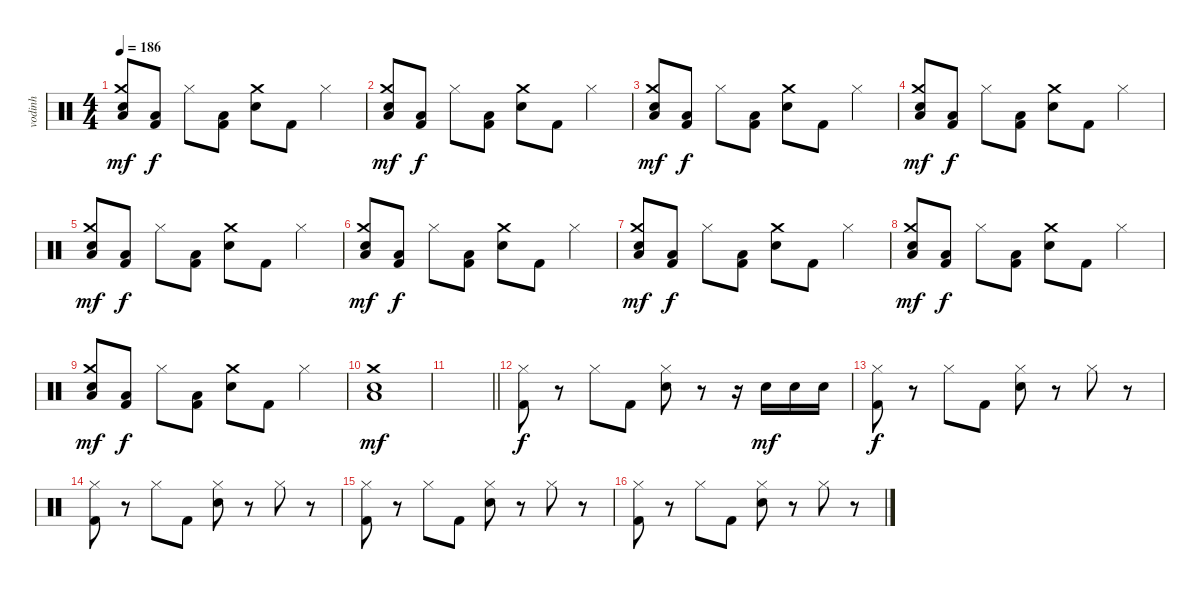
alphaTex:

\track ("vodinh" "vodinh") {instrument percussion}
\staff {score}
\articulation defaults
\ts (4 4)
\tempo 186
\clef neutral
\ks c
("Snare (hit) 2" "Crash medium (hit)" "Low Floor Tom (hit)").8{dy mf} ("Kick (hit) 2" "Low Floor Tom (hit)").8{dy f} "Hi-Hat (closed)".8 ("Kick (hit) 2" "Low Floor Tom (hit)").8 ("Snare (hit) 2" "Crash medium (hit)").8 "Kick (hit) 2".8 "Hi-Hat (closed)".4 |
("Snare (hit) 2" "Crash medium (hit)" "Low Floor Tom (hit)").8{dy mf} ("Kick (hit) 2" "Low Floor Tom (hit)").8{dy f} "Hi-Hat (closed)".8 ("Kick (hit) 2" "Low Floor Tom (hit)").8 ("Snare (hit) 2" "Crash medium (hit)").8 "Kick (hit) 2".8 "Hi-Hat (closed)".4 |
("Snare (hit) 2" "Crash medium (hit)" "Low Floor Tom (hit)").8{dy mf} ("Kick (hit) 2" "Low Floor Tom (hit)").8{dy f} "Hi-Hat (closed)".8 ("Kick (hit) 2" "Low Floor Tom (hit)").8 ("Snare (hit) 2" "Crash medium (hit)").8 "Kick (hit) 2".8 "Hi-Hat (closed)".4 |
("Snare (hit) 2" "Crash medium (hit)" "Low Floor Tom (hit)").8{dy mf} ("Kick (hit) 2" "Low Floor Tom (hit)").8{dy f} "Hi-Hat (closed)".8 ("Kick (hit) 2" "Low Floor Tom (hit)").8 ("Snare (hit) 2" "Crash medium (hit)").8 "Kick (hit) 2".8 "Hi-Hat (closed)".4 |
("Snare (hit) 2" "Crash medium (hit)" "Low Floor Tom (hit)").8{dy mf} ("Kick (hit) 2" "Low Floor Tom (hit)").8{dy f} "Hi-Hat (closed)".8 ("Kick (hit) 2" "Low Floor Tom (hit)").8 ("Snare (hit) 2" "Crash medium (hit)").8 "Kick (hit) 2".8 "Hi-Hat (closed)".4 |
("Snare (hit) 2" "Crash medium (hit)" "Low Floor Tom (hit)").8{dy mf} ("Kick (hit) 2" "Low Floor Tom (hit)").8{dy f} "Hi-Hat (closed)".8 ("Kick (hit) 2" "Low Floor Tom (hit)").8 ("Snare (hit) 2" "Crash medium (hit)").8 "Kick (hit) 2".8 "Hi-Hat (closed)".4 |
("Snare (hit) 2" "Crash medium (hit)" "Low Floor Tom (hit)").8{dy mf} ("Kick (hit) 2" "Low Floor Tom (hit)").8{dy f} "Hi-Hat (closed)".8 ("Kick (hit) 2" "Low Floor Tom (hit)").8 ("Snare (hit) 2" "Crash medium (hit)").8 "Kick (hit) 2".8 "Hi-Hat (closed)".4 |
("Snare (hit) 2" "Crash medium (hit)" "Low Floor Tom (hit)").8{dy mf} ("Kick (hit) 2" "Low Floor Tom (hit)").8{dy f} "Hi-Hat (closed)".8 ("Kick (hit) 2" "Low Floor Tom (hit)").8 ("Snare (hit) 2" "Crash medium (hit)").8 "Kick (hit) 2".8 "Hi-Hat (closed)".4 |
("Snare (hit) 2" "Crash medium (hit)" "Low Floor Tom (hit)").8{dy mf} ("Kick (hit) 2" "Low Floor Tom (hit)").8{dy f} "Hi-Hat (closed)".8 ("Kick (hit) 2" "Low Floor Tom (hit)").8 ("Snare (hit) 2" "Crash medium (hit)").8 "Kick (hit) 2".8 "Hi-Hat (closed)".4 |
("Snare (hit) 2" "Crash medium (hit)" "Low Floor Tom (hit)").1{dy mf} |
\barLineRight lightlight
|
\section ("" " ")
("Hi-Hat (closed)" "Kick (hit) 2").8{dy f} r.8 "Hi-Hat (closed)".8 "Kick (hit) 2".8 ("Hi-Hat (closed)" "Snare (hit) 2").8 r.8 r.16 "Snare (hit) 2".16{dy mf} "Snare (hit) 2".16 "Snare (hit) 2".16 |
("Hi-Hat (closed)" "Kick (hit) 2").8{dy f} r.8 "Hi-Hat (closed)".8 "Kick (hit) 2".8 ("Hi-Hat (closed)" "Snare (hit) 2").8 r.8 "Hi-Hat (closed)".8 r.8 |
("Hi-Hat (closed)" "Kick (hit) 2").8 r.8 "Hi-Hat (closed)".8 "Kick (hit) 2".8 ("Hi-Hat (closed)" "Snare (hit) 2").8 r.8 "Hi-Hat (closed)".8 r.8 |
("Hi-Hat (closed)" "Kick (hit) 2").8 r.8 "Hi-Hat (closed)".8 "Kick (hit) 2".8 ("Hi-Hat (closed)" "Snare (hit) 2").8 r.8 "Hi-Hat (closed)".8 r.8 |
("Hi-Hat (closed)" "Kick (hit) 2").8 r.8 "Hi-Hat (closed)".8 "Kick (hit) 2".8 ("Hi-Hat (closed)" "Snare (hit) 2").8 r.8 "Hi-Hat (closed)".8 r.8
